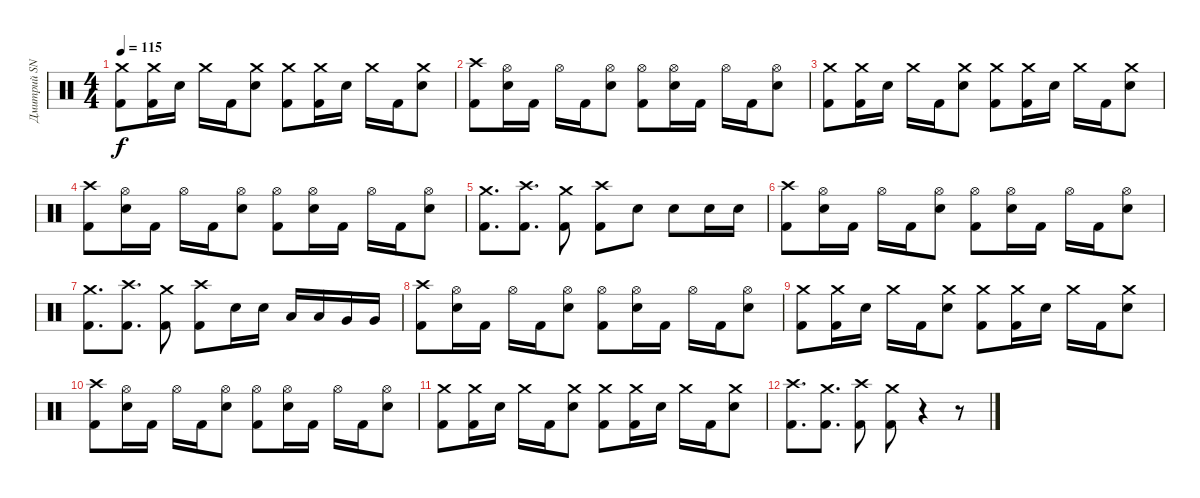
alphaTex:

\track ("Дмитрий SNAKE Хакимов" "Дмитрий SN") {instrument percussion}
\staff {score}
\articulation defaults
\ts (4 4)
\tempo 115
\clef neutral
\ks c
("Crash medium (hit)" "Kick (hit) 2").8{dy f} ("Crash medium (hit)" "Kick (hit) 2").16 "Snare (hit) 2".16 "Crash medium (hit)".16 "Kick (hit) 2".16 ("Crash medium (hit)" "Snare (hit) 2").8 ("Crash medium (hit)" "Kick (hit) 2").8 ("Crash medium (hit)" "Kick (hit) 2").16 "Snare (hit) 2".16 "Crash medium (hit)".16 "Kick (hit) 2".16 ("Crash medium (hit)" "Snare (hit) 2").8 |
("Crash high (hit)" "Kick (hit) 2").8 ("Hi-Hat (open)" "Snare (hit) 2").16 "Kick (hit) 2".16 "Hi-Hat (open)".16 "Kick (hit) 2".16 ("Hi-Hat (open)" "Snare (hit) 2").8 ("Hi-Hat (open)" "Kick (hit) 2").8 ("Hi-Hat (open)" "Snare (hit) 2").16 "Kick (hit) 2".16 "Hi-Hat (open)".16 "Kick (hit) 2".16 ("Hi-Hat (open)" "Snare (hit) 2").8 |
("Crash medium (hit)" "Kick (hit) 2").8 ("Crash medium (hit)" "Kick (hit) 2").16 "Snare (hit) 2".16 "Crash medium (hit)".16 "Kick (hit) 2".16 ("Crash medium (hit)" "Snare (hit) 2").8 ("Crash medium (hit)" "Kick (hit) 2").8 ("Crash medium (hit)" "Kick (hit) 2").16 "Snare (hit) 2".16 "Crash medium (hit)".16 "Kick (hit) 2".16 ("Crash medium (hit)" "Snare (hit) 2").8 |
("Crash high (hit)" "Kick (hit) 2").8 ("Hi-Hat (open)" "Snare (hit) 2").16 "Kick (hit) 2".16 "Hi-Hat (open)".16 "Kick (hit) 2".16 ("Hi-Hat (open)" "Snare (hit) 2").8 ("Hi-Hat (open)" "Kick (hit) 2").8 ("Hi-Hat (open)" "Snare (hit) 2").16 "Kick (hit) 2".16 "Hi-Hat (open)".16 "Kick (hit) 2".16 ("Hi-Hat (open)" "Snare (hit) 2").8 |
("Crash medium (hit)" "Kick (hit) 2").8{d} ("Crash high (hit)" "Kick (hit) 2").8{d} ("Crash medium (hit)" "Kick (hit) 2").8 ("Crash high (hit)" "Kick (hit) 2").8 "Snare (hit) 2".8 "Snare (hit) 2".8 "Snare (hit) 2".16 "Snare (hit) 2".16 |
("Crash high (hit)" "Kick (hit) 2").8 ("Hi-Hat (open)" "Snare (hit) 2").16 "Kick (hit) 2".16 "Hi-Hat (open)".16 "Kick (hit) 2".16 ("Hi-Hat (open)" "Snare (hit) 2").8 ("Hi-Hat (open)" "Kick (hit) 2").8 ("Hi-Hat (open)" "Snare (hit) 2").16 "Kick (hit) 2".16 "Hi-Hat (open)".16 "Kick (hit) 2".16 ("Hi-Hat (open)" "Snare (hit) 2").8 |
("Crash medium (hit)" "Kick (hit) 2").8{d} ("Crash high (hit)" "Kick (hit) 2").8{d} ("Crash medium (hit)" "Kick (hit) 2").8 ("Crash high (hit)" "Kick (hit) 2").8 "Snare (hit) 2".16 "Snare (hit) 2".16 "Low Tom (hit)".16 "Low Tom (hit)".16 "Very Low Tom (hit)".16 "Very Low Tom (hit)".16 |
("Crash high (hit)" "Kick (hit) 2").8 ("Hi-Hat (open)" "Snare (hit) 2").16 "Kick (hit) 2".16 "Hi-Hat (open)".16 "Kick (hit) 2".16 ("Hi-Hat (open)" "Snare (hit) 2").8 ("Hi-Hat (open)" "Kick (hit) 2").8 ("Hi-Hat (open)" "Snare (hit) 2").16 "Kick (hit) 2".16 "Hi-Hat (open)".16 "Kick (hit) 2".16 ("Hi-Hat (open)" "Snare (hit) 2").8 |
("Crash medium (hit)" "Kick (hit) 2").8 ("Crash medium (hit)" "Kick (hit) 2").16 "Snare (hit) 2".16 "Crash medium (hit)".16 "Kick (hit) 2".16 ("Crash medium (hit)" "Snare (hit) 2").8 ("Crash medium (hit)" "Kick (hit) 2").8 ("Crash medium (hit)" "Kick (hit) 2").16 "Snare (hit) 2".16 "Crash medium (hit)".16 "Kick (hit) 2".16 ("Crash medium (hit)" "Snare (hit) 2").8 |
("Crash high (hit)" "Kick (hit) 2").8 ("Hi-Hat (open)" "Snare (hit) 2").16 "Kick (hit) 2".16 "Hi-Hat (open)".16 "Kick (hit) 2".16 ("Hi-Hat (open)" "Snare (hit) 2").8 ("Hi-Hat (open)" "Kick (hit) 2").8 ("Hi-Hat (open)" "Snare (hit) 2").16 "Kick (hit) 2".16 "Hi-Hat (open)".16 "Kick (hit) 2".16 ("Hi-Hat (open)" "Snare (hit) 2").8 |
("Crash medium (hit)" "Kick (hit) 2").8 ("Crash medium (hit)" "Kick (hit) 2").16 "Snare (hit) 2".16 "Crash medium (hit)".16 "Kick (hit) 2".16 ("Crash medium (hit)" "Snare (hit) 2").8 ("Crash medium (hit)" "Kick (hit) 2").8 ("Crash medium (hit)" "Kick (hit) 2").16 "Snare (hit) 2".16 "Crash medium (hit)".16 "Kick (hit) 2".16 ("Crash medium (hit)" "Snare (hit) 2").8 |
("Crash high (hit)" "Kick (hit) 2").8{d} ("Crash medium (hit)" "Kick (hit) 2").8{d} ("Crash high (hit)" "Kick (hit) 2").8 ("Crash medium (hit)" "Kick (hit) 2").8 r.4 r.8
